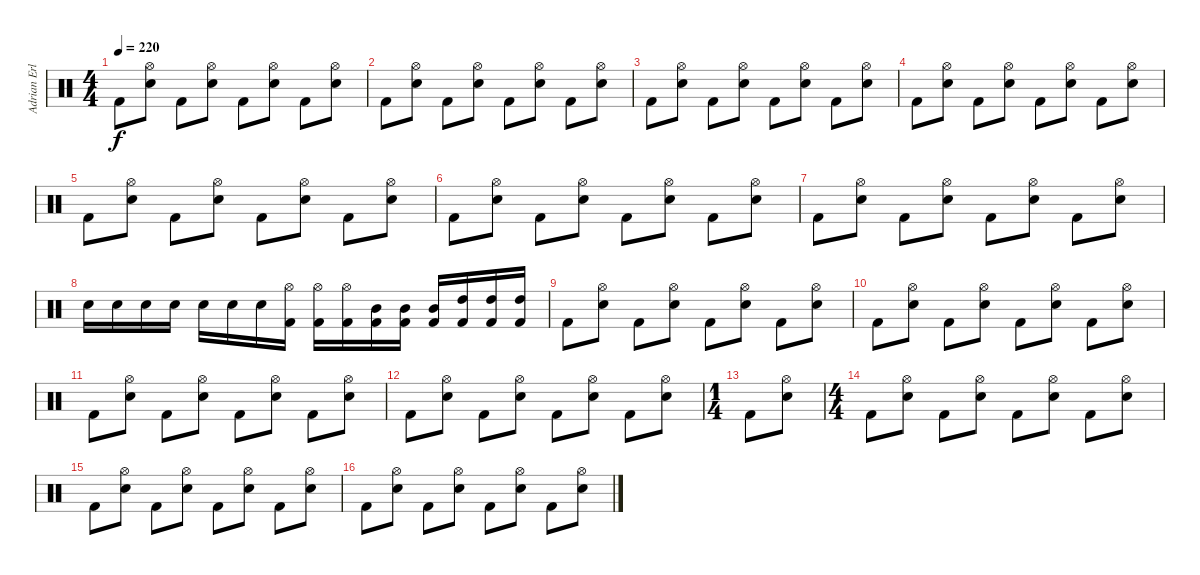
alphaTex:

\track ("Adrian Erlandsson" "Adrian Erl") {instrument percussion}
\staff {score}
\articulation defaults
\ts (4 4)
\tempo 220
\clef neutral
\ks c "Kick (hit) 2".8{dy f}
("Hi-Hat (open)" "Snare (hit) 2").8 "Kick (hit) 2".8 ("Hi-Hat (open)" "Snare (hit) 2").8 "Kick (hit) 2".8 ("Hi-Hat (open)" "Snare (hit) 2").8 "Kick (hit) 2".8 ("Hi-Hat (open)" "Snare (hit) 2").8 |
"Kick (hit) 2".8 ("Hi-Hat (open)" "Snare (hit) 2").8 "Kick (hit) 2".8 ("Hi-Hat (open)" "Snare (hit) 2").8 "Kick (hit) 2".8 ("Hi-Hat (open)" "Snare (hit) 2").8 "Kick (hit) 2".8 ("Hi-Hat (open)" "Snare (hit) 2").8 |
"Kick (hit) 2".8 ("Hi-Hat (open)" "Snare (hit) 2").8 "Kick (hit) 2".8 ("Hi-Hat (open)" "Snare (hit) 2").8 "Kick (hit) 2".8 ("Hi-Hat (open)" "Snare (hit) 2").8 "Kick (hit) 2".8 ("Hi-Hat (open)" "Snare (hit) 2").8 |
"Kick (hit) 2".8 ("Hi-Hat (open)" "Snare (hit) 2").8 "Kick (hit) 2".8 ("Hi-Hat (open)" "Snare (hit) 2").8 "Kick (hit) 2".8 ("Hi-Hat (open)" "Snare (hit) 2").8 "Kick (hit) 2".8 ("Hi-Hat (open)" "Snare (hit) 2").8 |
"Kick (hit) 2".8 ("Hi-Hat (open)" "Snare (hit) 2").8 "Kick (hit) 2".8 ("Hi-Hat (open)" "Snare (hit) 2").8 "Kick (hit) 2".8 ("Hi-Hat (open)" "Snare (hit) 2").8 "Kick (hit) 2".8 ("Hi-Hat (open)" "Snare (hit) 2").8 |
"Kick (hit) 2".8 ("Hi-Hat (open)" "Snare (hit) 2").8 "Kick (hit) 2".8 ("Hi-Hat (open)" "Snare (hit) 2").8 "Kick (hit) 2".8 ("Hi-Hat (open)" "Snare (hit) 2").8 "Kick (hit) 2".8 ("Hi-Hat (open)" "Snare (hit) 2").8 |
"Kick (hit) 2".8 ("Hi-Hat (open)" "Snare (hit) 2").8 "Kick (hit) 2".8 ("Hi-Hat (open)" "Snare (hit) 2").8 "Kick (hit) 2".8 ("Hi-Hat (open)" "Snare (hit) 2").8 "Kick (hit) 2".8 ("Hi-Hat (open)" "Snare (hit) 2").8 |
"Snare (hit) 2".16 "Snare (hit) 2".16 "Snare (hit) 2".16 "Snare (hit) 2".16 "Snare (hit) 2".16 "Snare (hit) 2".16 "Snare (hit) 2".16 ("Hi-Hat (open)" "Kick (hit) 2").16 ("Hi-Hat (open)" "Kick (hit) 2").16 ("Hi-Hat (open)" "Kick (hit) 2").16 ("Mid Tom (hit)" "Kick (hit) 2").16 ("Mid Tom (hit)" "Kick (hit) 2").16 ("Mid Tom (hit)" "Kick (hit) 2").16 ("High Tom (hit)" "Kick (hit) 2").16 ("High Tom (hit)" "Kick (hit) 2").16 ("High Tom (hit)" "Kick (hit) 2").16 |
"Kick (hit) 2".8 ("Hi-Hat (open)" "Snare (hit) 2").8 "Kick (hit) 2".8 ("Hi-Hat (open)" "Snare (hit) 2").8 "Kick (hit) 2".8 ("Hi-Hat (open)" "Snare (hit) 2").8 "Kick (hit) 2".8 ("Hi-Hat (open)" "Snare (hit) 2").8 |
"Kick (hit) 2".8 ("Hi-Hat (open)" "Snare (hit) 2").8 "Kick (hit) 2".8 ("Hi-Hat (open)" "Snare (hit) 2").8 "Kick (hit) 2".8 ("Hi-Hat (open)" "Snare (hit) 2").8 "Kick (hit) 2".8 ("Hi-Hat (open)" "Snare (hit) 2").8 |
"Kick (hit) 2".8 ("Hi-Hat (open)" "Snare (hit) 2").8 "Kick (hit) 2".8 ("Hi-Hat (open)" "Snare (hit) 2").8 "Kick (hit) 2".8 ("Hi-Hat (open)" "Snare (hit) 2").8 "Kick (hit) 2".8 ("Hi-Hat (open)" "Snare (hit) 2").8 |
"Kick (hit) 2".8 ("Hi-Hat (open)" "Snare (hit) 2").8 "Kick (hit) 2".8 ("Hi-Hat (open)" "Snare (hit) 2").8 "Kick (hit) 2".8 ("Hi-Hat (open)" "Snare (hit) 2").8 "Kick (hit) 2".8 ("Hi-Hat (open)" "Snare (hit) 2").8 |
\ts (1 4)
"Kick (hit) 2".8 ("Hi-Hat (open)" "Snare (hit) 2").8 |
\ts (4 4)
"Kick (hit) 2".8 ("Hi-Hat (open)" "Snare (hit) 2").8 "Kick (hit) 2".8 ("Hi-Hat (open)" "Snare (hit) 2").8 "Kick (hit) 2".8 ("Hi-Hat (open)" "Snare (hit) 2").8 "Kick (hit) 2".8 ("Hi-Hat (open)" "Snare (hit) 2").8 |
"Kick (hit) 2".8 ("Hi-Hat (open)" "Snare (hit) 2").8 "Kick (hit) 2".8 ("Hi-Hat (open)" "Snare (hit) 2").8 "Kick (hit) 2".8 ("Hi-Hat (open)" "Snare (hit) 2").8 "Kick (hit) 2".8 ("Hi-Hat (open)" "Snare (hit) 2").8 |
"Kick (hit) 2".8 ("Hi-Hat (open)" "Snare (hit) 2").8 "Kick (hit) 2".8 ("Hi-Hat (open)" "Snare (hit) 2").8 "Kick (hit) 2".8 ("Hi-Hat (open)" "Snare (hit) 2").8 "Kick (hit) 2".8 ("Hi-Hat (open)" "Snare (hit) 2").8
